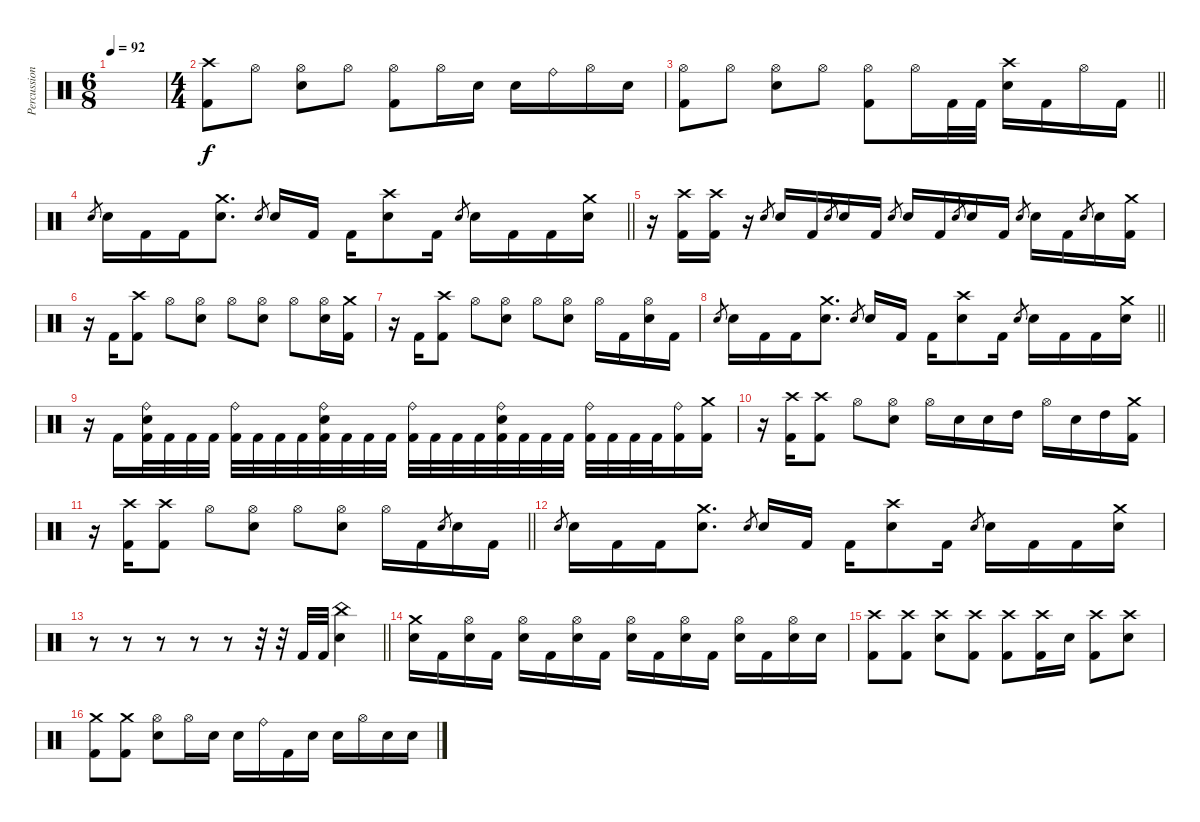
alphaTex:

\track ("Percussion (Moose)" "Percussion") {instrument percussion}
\staff {score}
\articulation defaults
\ts (6 8)
\tempo 92
\clef neutral
\ks c
|
\ts (4 4)
("Crash high (hit)" "Kick (hit) 2").8 "Hi-Hat (open)".8 ("Hi-Hat (open)" "Electric Snare (hit)").8 "Hi-Hat (open)".8 ("Hi-Hat (open)" "Kick (hit) 2").8 "Hi-Hat (open)".16 "Electric Snare (hit)".16 "Electric Snare (hit)".16 "Ride (bell)".16 "Hi-Hat (open)".16 "Electric Snare (hit)".16 |
\barLineRight lightlight
("Hi-Hat (open)" "Kick (hit) 2").8 "Hi-Hat (open)".8 ("Hi-Hat (open)" "Electric Snare (hit)").8 "Hi-Hat (open)".8 ("Hi-Hat (open)" "Kick (hit) 2").8 "Hi-Hat (open)".16 "Kick (hit) 2".32 "Kick (hit) 2".32 ("Crash high (hit)" "Electric Snare (hit)").16 "Kick (hit) 2".16 "Hi-Hat (open)".16 "Kick (hit) 2".16 |
\barLineRight lightlight "Electric Snare (hit)".8{gr} "Electric Snare (hit)".16 "Kick (hit) 2".16 "Kick (hit) 2".16
("Crash medium (hit)" "Electric Snare (hit)").8{d} "Electric Snare (hit)".8{gr} "Electric Snare (hit)".16 "Kick (hit) 2".16 "Kick (hit) 2".16 ("Crash high (hit)" "Electric Snare (hit)").8 "Kick (hit) 2".16 "Electric Snare (hit)".8{gr} "Electric Snare (hit)".16 "Kick (hit) 2".16 "Kick (hit) 2".16 ("Crash medium (hit)" "Electric Snare (hit)").16 |
r.16 ("Crash high (hit)" "Kick (hit) 2").16 ("Crash high (hit)" "Kick (hit) 2").16 r.16 "Electric Snare (hit)".8{gr} "Electric Snare (hit)".16 "Kick (hit) 2".16 "Electric Snare (hit)".8{gr} "Electric Snare (hit)".16 "Kick (hit) 2".16 "Electric Snare (hit)".8{gr} "Electric Snare (hit)".16 "Kick (hit) 2".16 "Electric Snare (hit)".8{gr} "Electric Snare (hit)".16 "Kick (hit) 2".16 "Electric Snare (hit)".8{gr} "Electric Snare (hit)".16 "Kick (hit) 2".16 "Electric Snare (hit)".8{gr} "Electric Snare (hit)".16 ("Crash medium (hit)" "Kick (hit) 2").16 |
r.16 "Kick (hit) 2".16 ("Crash high (hit)" "Kick (hit) 2").8 "Hi-Hat (open)".8 ("Hi-Hat (open)" "Electric Snare (hit)").8 "Hi-Hat (open)".8 ("Hi-Hat (open)" "Electric Snare (hit)").8 "Hi-Hat (open)".8 ("Hi-Hat (open)" "Electric Snare (hit)").16 ("Crash medium (hit)" "Kick (hit) 2").16 |
r.16 "Kick (hit) 2".16 ("Crash high (hit)" "Kick (hit) 2").8 "Hi-Hat (open)".8 ("Hi-Hat (open)" "Electric Snare (hit)").8 "Hi-Hat (open)".8 ("Hi-Hat (open)" "Electric Snare (hit)").8 "Hi-Hat (open)".16 "Kick (hit) 2".16 ("Hi-Hat (open)" "Electric Snare (hit)").16 "Kick (hit) 2".16 |
\barLineRight lightlight "Electric Snare (hit)".8{gr} "Electric Snare (hit)".16 "Kick (hit) 2".16 "Kick (hit) 2".16
("Crash medium (hit)" "Electric Snare (hit)").8{d} "Electric Snare (hit)".8{gr} "Electric Snare (hit)".16 "Kick (hit) 2".16 "Kick (hit) 2".16 ("Crash high (hit)" "Electric Snare (hit)").8 "Kick (hit) 2".16 "Electric Snare (hit)".8{gr} "Electric Snare (hit)".16 "Kick (hit) 2".16 "Kick (hit) 2".16 ("Crash medium (hit)" "Electric Snare (hit)").16 |
r.16 "Kick (hit) 2".16 ("Ride (bell)" "Electric Snare (hit)" "Kick (hit) 2").32 "Kick (hit) 2".32 "Kick (hit) 2".32 "Kick (hit) 2".32 ("Ride (bell)" "Kick (hit) 2").32 "Kick (hit) 2".32 "Kick (hit) 2".32 "Kick (hit) 2".32 ("Ride (bell)" "Electric Snare (hit)" "Kick (hit) 2").32 "Kick (hit) 2".32 "Kick (hit) 2".32 "Kick (hit) 2".32 ("Ride (bell)" "Kick (hit) 2").32 "Kick (hit) 2".32 "Kick (hit) 2".32 "Kick (hit) 2".32 ("Ride (bell)" "Electric Snare (hit)" "Kick (hit) 2").32 "Kick (hit) 2".32 "Kick (hit) 2".32 "Kick (hit) 2".32 ("Ride (bell)" "Kick (hit) 2").32 "Kick (hit) 2".32 "Kick (hit) 2".32 "Kick (hit) 2".32 ("Ride (bell)" "Kick (hit) 2").16 ("Crash medium (hit)" "Kick (hit) 2").16 |
r.16 ("Crash high (hit)" "Kick (hit) 2").16 ("Crash high (hit)" "Kick (hit) 2").8 "Hi-Hat (open)".8 ("Hi-Hat (open)" "Electric Snare (hit)").8 "Hi-Hat (open)".16 "Electric Snare (hit)".16 "Electric Snare (hit)".16 "High Tom (hit)".16 "Hi-Hat (open)".16 "Electric Snare (hit)".16 "High Tom (hit)".16 ("Crash medium (hit)" "Kick (hit) 2").16 |
\barLineRight lightlight
r.16 ("Crash high (hit)" "Kick (hit) 2").16 ("Crash high (hit)" "Kick (hit) 2").8 "Hi-Hat (open)".8 ("Hi-Hat (open)" "Electric Snare (hit)").8 "Hi-Hat (open)".8 ("Hi-Hat (open)" "Electric Snare (hit)").8 "Hi-Hat (open)".16 "Kick (hit) 2".16 "Electric Snare (hit)".8{gr} "Electric Snare (hit)".16 "Kick (hit) 2".16 |
"Electric Snare (hit)".8{gr} "Electric Snare (hit)".16 "Kick (hit) 2".16 "Kick (hit) 2".16 ("Crash medium (hit)" "Electric Snare (hit)").8{d} "Electric Snare (hit)".8{gr} "Electric Snare (hit)".16 "Kick (hit) 2".16 "Kick (hit) 2".16 ("Crash high (hit)" "Electric Snare (hit)").8 "Kick (hit) 2".16 "Electric Snare (hit)".8{gr} "Electric Snare (hit)".16 "Kick (hit) 2".16 "Kick (hit) 2".16 ("Crash medium (hit)" "Electric Snare (hit)").16 |
\barLineRight lightlight
r.8 r.8 r.8 r.8 r.8 r.32 r.32 "Kick (hit) 2".32 "Kick (hit) 2".32 ("China (hit)" "Electric Snare (hit)").4 |
("Crash medium (hit)" "Electric Snare (hit)").16 "Kick (hit) 2".16 ("Hi-Hat (open)" "Electric Snare (hit)").16 "Kick (hit) 2".16 ("Hi-Hat (open)" "Electric Snare (hit)").16 "Kick (hit) 2".16 ("Hi-Hat (open)" "Electric Snare (hit)").16 "Kick (hit) 2".16 ("Hi-Hat (open)" "Electric Snare (hit)").16 "Kick (hit) 2".16 ("Hi-Hat (open)" "Electric Snare (hit)").16 "Kick (hit) 2".16 ("Hi-Hat (open)" "Electric Snare (hit)").16 "Kick (hit) 2".16 ("Hi-Hat (open)" "Electric Snare (hit)").16 "Electric Snare (hit)".16 |
("Crash high (hit)" "Kick (hit) 2").8 ("Crash high (hit)" "Kick (hit) 2").8 ("Crash high (hit)" "Electric Snare (hit)").8 ("Crash high (hit)" "Kick (hit) 2").8 ("Crash high (hit)" "Kick (hit) 2").8 ("Crash high (hit)" "Kick (hit) 2").16 "Electric Snare (hit)".16 ("Crash high (hit)" "Kick (hit) 2").8 ("Crash high (hit)" "Electric Snare (hit)").8 |
("Crash medium (hit)" "Kick (hit) 2").8 ("Crash medium (hit)" "Kick (hit) 2").8 ("Hi-Hat (open)" "Electric Snare (hit)").8 "Hi-Hat (open)".16 "Electric Snare (hit)".16 "Electric Snare (hit)".16 "Ride (bell)".16 "Kick (hit) 2".16 "Electric Snare (hit)".16 "Electric Snare (hit)".16 "Hi-Hat (open)".16 "Electric Snare (hit)".16 "Electric Snare (hit)".16
